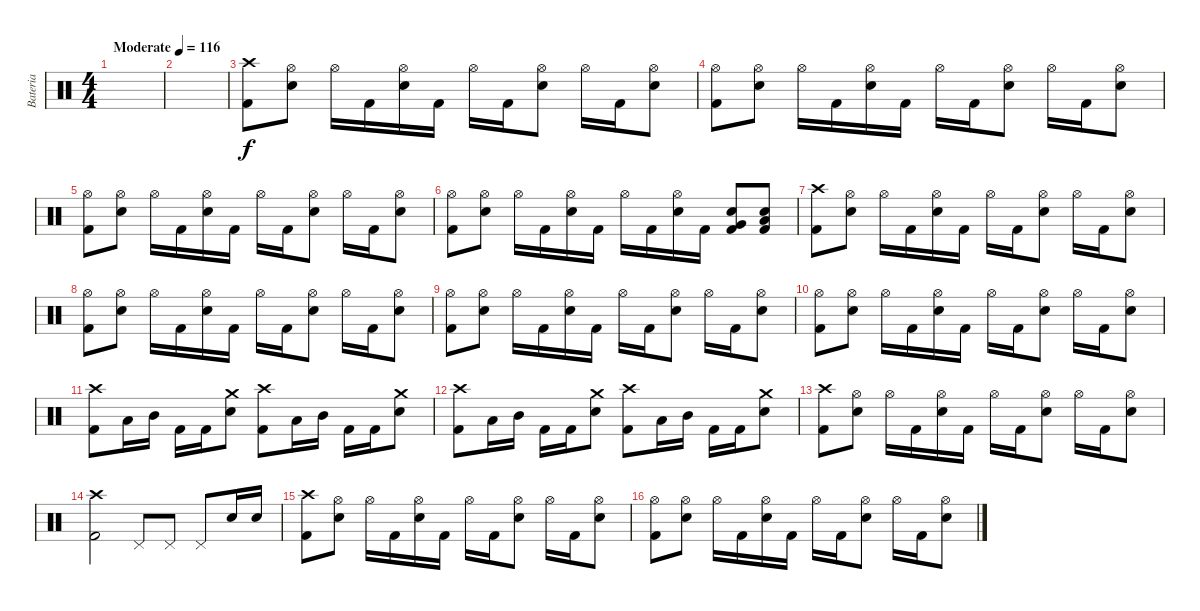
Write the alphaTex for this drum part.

\track ("Bateria" "Bateria") {instrument percussion}
\staff {score}
\articulation defaults
\ts (4 4)
\tempo (116 "Moderate")
\clef neutral
\ks c
|
|
("Kick (hit) 2" "Crash high (hit)").8 ("Snare (hit) 2" "Hi-Hat (open)").8 "Hi-Hat (open)".16 "Kick (hit) 2".16 ("Snare (hit) 2" "Hi-Hat (open)").16 "Kick (hit) 2".16 "Hi-Hat (open)".16 "Kick (hit) 2".16 ("Snare (hit) 2" "Hi-Hat (open)").8 "Hi-Hat (open)".16 "Kick (hit) 2".16 ("Snare (hit) 2" "Hi-Hat (open)").8 |
("Kick (hit) 2" "Hi-Hat (open)").8 ("Snare (hit) 2" "Hi-Hat (open)").8 "Hi-Hat (open)".16 "Kick (hit) 2".16 ("Snare (hit) 2" "Hi-Hat (open)").16 "Kick (hit) 2".16 "Hi-Hat (open)".16 "Kick (hit) 2".16 ("Snare (hit) 2" "Hi-Hat (open)").8 "Hi-Hat (open)".16 "Kick (hit) 2".16 ("Snare (hit) 2" "Hi-Hat (open)").8 |
("Kick (hit) 2" "Hi-Hat (open)").8 ("Snare (hit) 2" "Hi-Hat (open)").8 "Hi-Hat (open)".16 "Kick (hit) 2".16 ("Snare (hit) 2" "Hi-Hat (open)").16 "Kick (hit) 2".16 "Hi-Hat (open)".16 "Kick (hit) 2".16 ("Snare (hit) 2" "Hi-Hat (open)").8 "Hi-Hat (open)".16 "Kick (hit) 2".16 ("Snare (hit) 2" "Hi-Hat (open)").8 |
("Kick (hit) 2" "Hi-Hat (open)").8 ("Snare (hit) 2" "Hi-Hat (open)").8 "Hi-Hat (open)".16 "Kick (hit) 2".16 ("Snare (hit) 2" "Hi-Hat (open)").16 "Kick (hit) 2".16 "Hi-Hat (open)".16 "Kick (hit) 2".16 ("Snare (hit) 2" "Hi-Hat (open)").16 "Kick (hit) 2".16 ("Snare (hit) 2" "Kick (hit) 2" "Very Low Tom (hit)").8 ("Low Tom (hit)" "Snare (hit) 2" "Kick (hit) 2").8 |
("Kick (hit) 2" "Crash high (hit)").8 ("Snare (hit) 2" "Hi-Hat (open)").8 "Hi-Hat (open)".16 "Kick (hit) 2".16 ("Snare (hit) 2" "Hi-Hat (open)").16 "Kick (hit) 2".16 "Hi-Hat (open)".16 "Kick (hit) 2".16 ("Snare (hit) 2" "Hi-Hat (open)").8 "Hi-Hat (open)".16 "Kick (hit) 2".16 ("Snare (hit) 2" "Hi-Hat (open)").8 |
("Kick (hit) 2" "Hi-Hat (open)").8 ("Snare (hit) 2" "Hi-Hat (open)").8 "Hi-Hat (open)".16 "Kick (hit) 2".16 ("Snare (hit) 2" "Hi-Hat (open)").16 "Kick (hit) 2".16 "Hi-Hat (open)".16 "Kick (hit) 2".16 ("Snare (hit) 2" "Hi-Hat (open)").8 "Hi-Hat (open)".16 "Kick (hit) 2".16 ("Snare (hit) 2" "Hi-Hat (open)").8 |
("Kick (hit) 2" "Hi-Hat (open)").8 ("Snare (hit) 2" "Hi-Hat (open)").8 "Hi-Hat (open)".16 "Kick (hit) 2".16 ("Snare (hit) 2" "Hi-Hat (open)").16 "Kick (hit) 2".16 "Hi-Hat (open)".16 "Kick (hit) 2".16 ("Snare (hit) 2" "Hi-Hat (open)").8 "Hi-Hat (open)".16 "Kick (hit) 2".16 ("Snare (hit) 2" "Hi-Hat (open)").8 |
("Kick (hit) 2" "Hi-Hat (open)").8 ("Snare (hit) 2" "Hi-Hat (open)").8 "Hi-Hat (open)".16 "Kick (hit) 2".16 ("Snare (hit) 2" "Hi-Hat (open)").16 "Kick (hit) 2".16 "Hi-Hat (open)".16 "Kick (hit) 2".16 ("Snare (hit) 2" "Hi-Hat (open)").8 "Hi-Hat (open)".16 "Kick (hit) 2".16 ("Snare (hit) 2" "Hi-Hat (open)").8 |
("Kick (hit) 2" "Crash high (hit)").8 "Low Floor Tom (hit)".16 "Mid Tom (hit)".16 "Kick (hit) 2".16 "Kick (hit) 2".16 ("Snare (hit) 2" "Crash medium (hit)").8 ("Kick (hit) 2" "Crash high (hit)").8 "Low Floor Tom (hit)".16 "Mid Tom (hit)".16 "Kick (hit) 2".16 "Kick (hit) 2".16 ("Snare (hit) 2" "Crash medium (hit)").8 |
("Kick (hit) 2" "Crash high (hit)").8 "Low Floor Tom (hit)".16 "Mid Tom (hit)".16 "Kick (hit) 2".16 "Kick (hit) 2".16 ("Snare (hit) 2" "Crash medium (hit)").8 ("Kick (hit) 2" "Crash high (hit)").8 "Low Floor Tom (hit)".16 "Mid Tom (hit)".16 "Kick (hit) 2".16 "Kick (hit) 2".16 ("Snare (hit) 2" "Crash medium (hit)").8 |
("Kick (hit) 2" "Crash high (hit)").8 ("Snare (hit) 2" "Hi-Hat (open)").8 "Hi-Hat (open)".16 "Kick (hit) 2".16 ("Snare (hit) 2" "Hi-Hat (open)").16 "Kick (hit) 2".16 "Hi-Hat (open)".16 "Kick (hit) 2".16 ("Snare (hit) 2" "Hi-Hat (open)").8 "Hi-Hat (open)".16 "Kick (hit) 2".16 ("Snare (hit) 2" "Hi-Hat (open)").8 |
("Kick (hit) 2" "Crash high (hit)").2 "Pedal Hi-Hat (hit)".8 "Pedal Hi-Hat (hit)".8 "Pedal Hi-Hat (hit)".8 "Snare (hit) 2".16 "Snare (hit) 2".16 |
("Kick (hit) 2" "Crash high (hit)").8 ("Snare (hit) 2" "Hi-Hat (open)").8 "Hi-Hat (open)".16 "Kick (hit) 2".16 ("Snare (hit) 2" "Hi-Hat (open)").16 "Kick (hit) 2".16 "Hi-Hat (open)".16 "Kick (hit) 2".16 ("Snare (hit) 2" "Hi-Hat (open)").8 "Hi-Hat (open)".16 "Kick (hit) 2".16 ("Snare (hit) 2" "Hi-Hat (open)").8 |
("Kick (hit) 2" "Hi-Hat (open)").8 ("Snare (hit) 2" "Hi-Hat (open)").8 "Hi-Hat (open)".16 "Kick (hit) 2".16 ("Snare (hit) 2" "Hi-Hat (open)").16 "Kick (hit) 2".16 "Hi-Hat (open)".16 "Kick (hit) 2".16 ("Snare (hit) 2" "Hi-Hat (open)").8 "Hi-Hat (open)".16 "Kick (hit) 2".16 ("Snare (hit) 2" "Hi-Hat (open)").8
